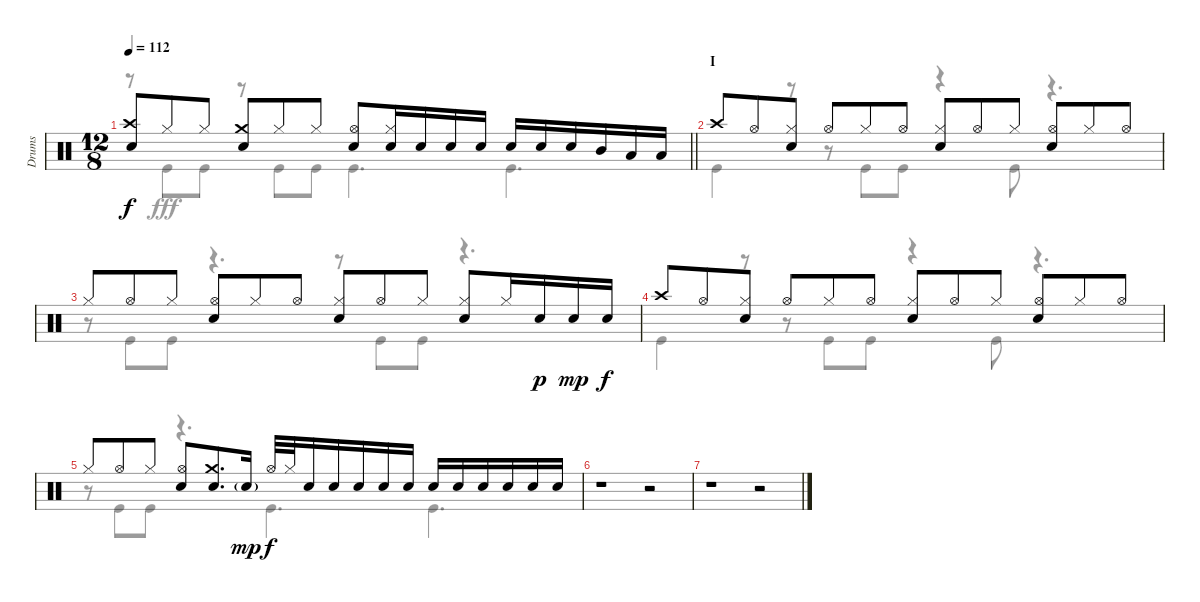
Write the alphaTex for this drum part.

\track ("Drums" "Drums") {instrument percussion}
\staff {score}
\articulation defaults
\voice
\ts (12 8)
\tempo 112
\clef neutral
\barLineRight lightlight
\ks c
("Crash high (hit)" "Snare (hit) 2").8{dy f} "Hi-Hat (closed)".8 "Hi-Hat (closed)".8 ("Crash medium (hit)" "Snare (hit) 2").8 "Hi-Hat (closed)".8 "Hi-Hat (closed)".8 ("Hi-Hat (open)" "Snare (hit) 2").8 ("Hi-Hat (closed)" "Snare (hit) 2").16 "Snare (hit) 2".16 "Snare (hit) 2".16 "Snare (hit) 2".16 "Snare (hit) 2".16 "Snare (hit) 2".16 "Snare (hit) 2".16 "Mid Tom (hit)".16 "Low Tom (hit)".16 "Low Tom (hit)".16 |
\section ("" "I")
"Crash high (hit)".8 "Hi-Hat (open)".8 ("Hi-Hat (closed)" "Snare (hit) 2").8 "Hi-Hat (open)".8 "Hi-Hat (closed)".8 "Hi-Hat (open)".8 ("Hi-Hat (closed)" "Snare (hit) 2").8 "Hi-Hat (open)".8 "Hi-Hat (closed)".8 ("Hi-Hat (open)" "Snare (hit) 2").8 "Hi-Hat (closed)".8 "Hi-Hat (open)".8 |
"Hi-Hat (closed)".8 "Hi-Hat (open)".8 "Hi-Hat (closed)".8 ("Hi-Hat (open)" "Snare (hit) 2").8 "Hi-Hat (closed)".8 "Hi-Hat (open)".8 ("Hi-Hat (closed)" "Snare (hit) 2").8 "Hi-Hat (open)".8 "Hi-Hat (closed)".8 ("Hi-Hat (closed)" "Snare (hit) 2").8 "Hi-Hat (closed)".16 "Snare (hit) 2".16{dy p} "Snare (hit) 2".16{dy mp} "Snare (hit) 2".16{dy f} |
"Crash high (hit)".8 "Hi-Hat (open)".8 ("Hi-Hat (closed)" "Snare (hit) 2").8 "Hi-Hat (open)".8 "Hi-Hat (closed)".8 "Hi-Hat (open)".8 ("Hi-Hat (closed)" "Snare (hit) 2").8 "Hi-Hat (open)".8 "Hi-Hat (closed)".8 ("Hi-Hat (open)" "Snare (hit) 2").8 "Hi-Hat (closed)".8 "Hi-Hat (open)".8 |
"Hi-Hat (closed)".8 "Hi-Hat (open)".8 "Hi-Hat (closed)".8 ("Hi-Hat (open)" "Snare (hit) 2").8 ("Crash medium (hit)" "Snare (hit) 2").8{d} "Snare (hit) 2"{g}.16{dy mp} "Hi-Hat (open)".32{dy f} "Hi-Hat (closed)".32 "Snare (hit) 2".16 "Snare (hit) 2".16 "Snare (hit) 2".16 "Snare (hit) 2".16 "Snare (hit) 2".16 "Snare (hit) 2".16 "Snare (hit) 2".16 "Snare (hit) 2".16 "Snare (hit) 2".16 "Snare (hit) 2".16 "Snare (hit) 2".16 |
r.1 r.2 |
r.1 r.2
\voice
\clef neutral
\ottava regular
\simile none
\barLineRight lightlight
\ks c
r.8{dy fff} "Kick (hit)".8 "Kick (hit)".8 r.8 "Kick (hit)".8 "Kick (hit)".8 "Kick (hit)".4{d} "Kick (hit)".4{d} |
"Kick (hit)".4 r.8 r.8 "Kick (hit)".8 "Kick (hit)".8 r.4 "Kick (hit)".8 r.4{d} |
r.8 "Kick (hit)".8 "Kick (hit)".8 r.4{d} r.8 "Kick (hit)".8 "Kick (hit)".8 r.4{d} |
"Kick (hit)".4 r.8 r.8 "Kick (hit)".8 "Kick (hit)".8 r.4 "Kick (hit)".8 r.4{d} |
r.8 "Kick (hit)".8 "Kick (hit)".8 r.4{d} "Kick (hit)".4{d} "Kick (hit)".4{d} |
r.1 r.2 |
r.1 r.2
